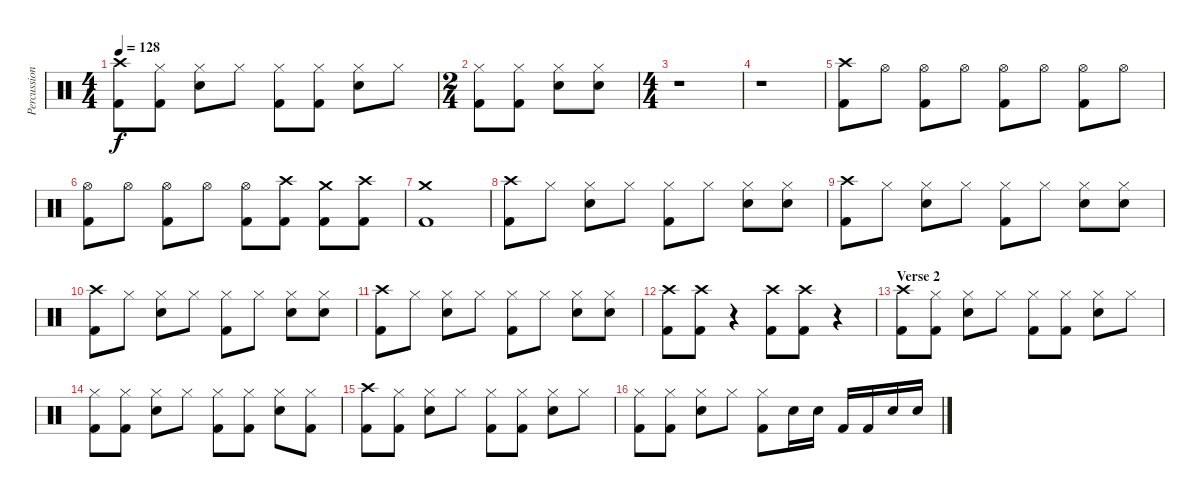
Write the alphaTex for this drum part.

\track ("Percussion" "Percussion") {instrument percussion}
\staff {score}
\articulation defaults
\ts (4 4)
\tempo 128
\clef neutral
\ks c
("Crash high (hit)" "Kick (hit) 2").8{dy f} ("Hi-Hat (closed)" "Kick (hit) 2").8 ("Hi-Hat (closed)" "Snare (hit) 2").8 "Hi-Hat (closed)".8 ("Hi-Hat (closed)" "Kick (hit) 2").8 ("Hi-Hat (closed)" "Kick (hit) 2").8 ("Hi-Hat (closed)" "Snare (hit) 2").8 "Hi-Hat (closed)".8 |
\ts (2 4)
("Hi-Hat (closed)" "Kick (hit) 2").8 ("Hi-Hat (closed)" "Kick (hit) 2").8 ("Hi-Hat (closed)" "Snare (hit) 2").8 ("Hi-Hat (closed)" "Snare (hit) 2").8 |
\ts (4 4)
r.1 |
r.1 |
("Crash high (hit)" "Kick (hit) 2").8 "Hi-Hat (open)".8 ("Hi-Hat (open)" "Kick (hit) 2").8 "Hi-Hat (open)".8 ("Hi-Hat (open)" "Kick (hit) 2").8 "Hi-Hat (open)".8 ("Hi-Hat (open)" "Kick (hit) 2").8 "Hi-Hat (open)".8 |
("Hi-Hat (open)" "Kick (hit) 2").8 "Hi-Hat (open)".8 ("Hi-Hat (open)" "Kick (hit) 2").8 "Hi-Hat (open)".8 ("Hi-Hat (open)" "Kick (hit) 2").8 ("Crash high (hit)" "Kick (hit) 2").8 ("Crash medium (hit)" "Kick (hit) 2").8 ("Crash high (hit)" "Kick (hit) 2").8 |
("Crash medium (hit)" "Kick (hit) 2").1 |
("Crash high (hit)" "Kick (hit) 2").8 "Hi-Hat (closed)".8 ("Hi-Hat (closed)" "Snare (hit) 2").8 "Hi-Hat (closed)".8 ("Hi-Hat (closed)" "Kick (hit) 2").8 "Hi-Hat (closed)".8 ("Hi-Hat (closed)" "Snare (hit) 2").8 ("Hi-Hat (closed)" "Snare (hit) 2").8 |
("Crash high (hit)" "Kick (hit) 2").8 "Hi-Hat (closed)".8 ("Hi-Hat (closed)" "Snare (hit) 2").8 "Hi-Hat (closed)".8 ("Hi-Hat (closed)" "Kick (hit) 2").8 "Hi-Hat (closed)".8 ("Hi-Hat (closed)" "Snare (hit) 2").8 ("Hi-Hat (closed)" "Snare (hit) 2").8 |
("Crash high (hit)" "Kick (hit) 2").8 "Hi-Hat (closed)".8 ("Hi-Hat (closed)" "Snare (hit) 2").8 "Hi-Hat (closed)".8 ("Hi-Hat (closed)" "Kick (hit) 2").8 "Hi-Hat (closed)".8 ("Hi-Hat (closed)" "Snare (hit) 2").8 ("Hi-Hat (closed)" "Snare (hit) 2").8 |
("Crash high (hit)" "Kick (hit) 2").8 "Hi-Hat (closed)".8 ("Hi-Hat (closed)" "Snare (hit) 2").8 "Hi-Hat (closed)".8 ("Hi-Hat (closed)" "Kick (hit) 2").8 "Hi-Hat (closed)".8 ("Hi-Hat (closed)" "Snare (hit) 2").8 ("Hi-Hat (closed)" "Snare (hit) 2").8 |
("Crash high (hit)" "Kick (hit) 2").8 ("Crash high (hit)" "Kick (hit) 2").8 r.4 ("Crash high (hit)" "Kick (hit) 2").8 ("Crash high (hit)" "Kick (hit) 2").8 r.4 |
\section ("" "Verse 2")
("Crash high (hit)" "Kick (hit) 2").8 ("Hi-Hat (closed)" "Kick (hit) 2").8 ("Hi-Hat (closed)" "Snare (hit) 2").8 "Hi-Hat (closed)".8 ("Hi-Hat (closed)" "Kick (hit) 2").8 ("Hi-Hat (closed)" "Kick (hit) 2").8 ("Hi-Hat (closed)" "Snare (hit) 2").8 "Hi-Hat (closed)".8 |
("Hi-Hat (closed)" "Kick (hit) 2").8 ("Hi-Hat (closed)" "Kick (hit) 2").8 ("Hi-Hat (closed)" "Snare (hit) 2").8 "Hi-Hat (closed)".8 ("Hi-Hat (closed)" "Kick (hit) 2").8 ("Hi-Hat (closed)" "Kick (hit) 2").8 ("Hi-Hat (closed)" "Snare (hit) 2").8 ("Hi-Hat (closed)" "Kick (hit) 2").8 |
("Crash high (hit)" "Kick (hit) 2").8 ("Hi-Hat (closed)" "Kick (hit) 2").8 ("Hi-Hat (closed)" "Snare (hit) 2").8 "Hi-Hat (closed)".8 ("Hi-Hat (closed)" "Kick (hit) 2").8 ("Hi-Hat (closed)" "Kick (hit) 2").8 ("Hi-Hat (closed)" "Snare (hit) 2").8 "Hi-Hat (closed)".8 |
("Hi-Hat (closed)" "Kick (hit) 2").8 ("Hi-Hat (closed)" "Kick (hit) 2").8 ("Hi-Hat (closed)" "Snare (hit) 2").8 "Hi-Hat (closed)".8 ("Hi-Hat (closed)" "Kick (hit) 2").8 "Snare (hit) 2".16 "Snare (hit) 2".16 "Kick (hit) 2".16 "Kick (hit) 2".16 "Snare (hit) 2".16 "Snare (hit) 2".16
